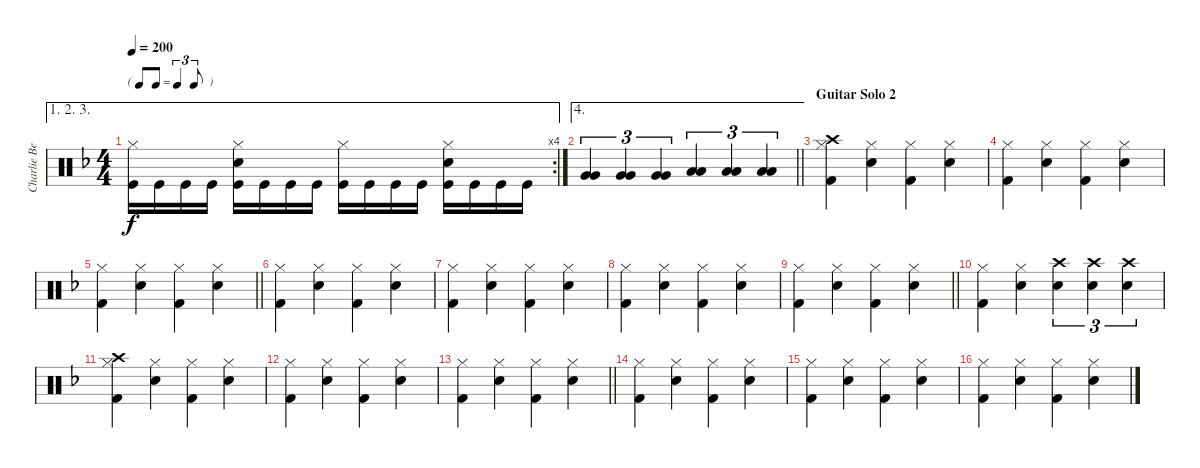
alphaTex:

\track ("Charlie Benante" "Charlie Be") {instrument percussion}
\staff {score}
\articulation defaults
\ae (1 2 3)
\rc 4
\ts (4 4)
\tf triplet8th
\tempo 200
\clef neutral
\ks f
("Hi-Hat (closed)" "Kick (hit)").16{dy f} "Kick (hit)".16 "Kick (hit)".16 "Kick (hit)".16 ("Hi-Hat (closed)" "Electric Snare (hit)" "Kick (hit)").16 "Kick (hit)".16 "Kick (hit)".16 "Kick (hit)".16 ("Hi-Hat (closed)" "Kick (hit)").16 "Kick (hit)".16 "Kick (hit)".16 "Kick (hit)".16 ("Hi-Hat (closed)" "Electric Snare (hit)" "Kick (hit)").16 "Kick (hit)".16 "Kick (hit)".16 "Kick (hit)".16 |
\ae 4
\barLineRight lightlight
("Very Low Tom (hit)" "Very Low Tom (hit)").4{tu (3 2)} ("Very Low Tom (hit)" "Very Low Tom (hit)").4{tu (3 2)} ("Very Low Tom (hit)" "Very Low Tom (hit)").4{tu (3 2)} ("Low Floor Tom (hit)" "Low Floor Tom (hit)").4{tu (3 2)} ("Low Floor Tom (hit)" "Low Floor Tom (hit)").4{tu (3 2)} ("Low Floor Tom (hit)" "Low Floor Tom (hit)").4{tu (3 2)} |
\section ("" "Guitar Solo 2")
("Crash high (hit)" "Hi-Hat (closed)" "Kick (hit) 2").4 ("Hi-Hat (closed)" "Electric Snare (hit)").4 ("Hi-Hat (closed)" "Kick (hit) 2").4 ("Hi-Hat (closed)" "Electric Snare (hit)").4 |
("Hi-Hat (closed)" "Kick (hit) 2").4 ("Hi-Hat (closed)" "Electric Snare (hit)").4 ("Hi-Hat (closed)" "Kick (hit) 2").4 ("Hi-Hat (closed)" "Electric Snare (hit)").4 |
\barLineRight lightlight
("Hi-Hat (closed)" "Kick (hit) 2").4 ("Hi-Hat (closed)" "Electric Snare (hit)").4 ("Hi-Hat (closed)" "Kick (hit) 2").4 ("Hi-Hat (closed)" "Electric Snare (hit)").4 |
("Hi-Hat (closed)" "Kick (hit) 2").4 ("Hi-Hat (closed)" "Electric Snare (hit)").4 ("Hi-Hat (closed)" "Kick (hit) 2").4 ("Hi-Hat (closed)" "Electric Snare (hit)").4 |
("Hi-Hat (closed)" "Kick (hit) 2").4 ("Hi-Hat (closed)" "Electric Snare (hit)").4 ("Hi-Hat (closed)" "Kick (hit) 2").4 ("Hi-Hat (closed)" "Electric Snare (hit)").4 |
("Hi-Hat (closed)" "Kick (hit) 2").4 ("Hi-Hat (closed)" "Electric Snare (hit)").4 ("Hi-Hat (closed)" "Kick (hit) 2").4 ("Hi-Hat (closed)" "Electric Snare (hit)").4 |
\barLineRight lightlight
("Hi-Hat (closed)" "Kick (hit) 2").4 ("Hi-Hat (closed)" "Electric Snare (hit)").4 ("Hi-Hat (closed)" "Kick (hit) 2").4 ("Hi-Hat (closed)" "Electric Snare (hit)").4 |
("Hi-Hat (closed)" "Kick (hit) 2").4 ("Hi-Hat (closed)" "Electric Snare (hit)").4 ("Crash high (hit)" "Electric Snare (hit)").4{tu (3 2)} ("Crash high (hit)" "Electric Snare (hit)").4{tu (3 2)} ("Crash high (hit)" "Electric Snare (hit)").4{tu (3 2)} |
("Crash high (hit)" "Hi-Hat (closed)" "Kick (hit) 2").4 ("Hi-Hat (closed)" "Electric Snare (hit)").4 ("Hi-Hat (closed)" "Kick (hit) 2").4 ("Hi-Hat (closed)" "Electric Snare (hit)").4 |
("Hi-Hat (closed)" "Kick (hit) 2").4 ("Hi-Hat (closed)" "Electric Snare (hit)").4 ("Hi-Hat (closed)" "Kick (hit) 2").4 ("Hi-Hat (closed)" "Electric Snare (hit)").4 |
\barLineRight lightlight
("Hi-Hat (closed)" "Kick (hit) 2").4 ("Hi-Hat (closed)" "Electric Snare (hit)").4 ("Hi-Hat (closed)" "Kick (hit) 2").4 ("Hi-Hat (closed)" "Electric Snare (hit)").4 |
("Hi-Hat (closed)" "Kick (hit) 2").4 ("Hi-Hat (closed)" "Electric Snare (hit)").4 ("Hi-Hat (closed)" "Kick (hit) 2").4 ("Hi-Hat (closed)" "Electric Snare (hit)").4 |
("Hi-Hat (closed)" "Kick (hit) 2").4 ("Hi-Hat (closed)" "Electric Snare (hit)").4 ("Hi-Hat (closed)" "Kick (hit) 2").4 ("Hi-Hat (closed)" "Electric Snare (hit)").4 |
("Hi-Hat (closed)" "Kick (hit) 2").4 ("Hi-Hat (closed)" "Electric Snare (hit)").4 ("Hi-Hat (closed)" "Kick (hit) 2").4 ("Hi-Hat (closed)" "Electric Snare (hit)").4
